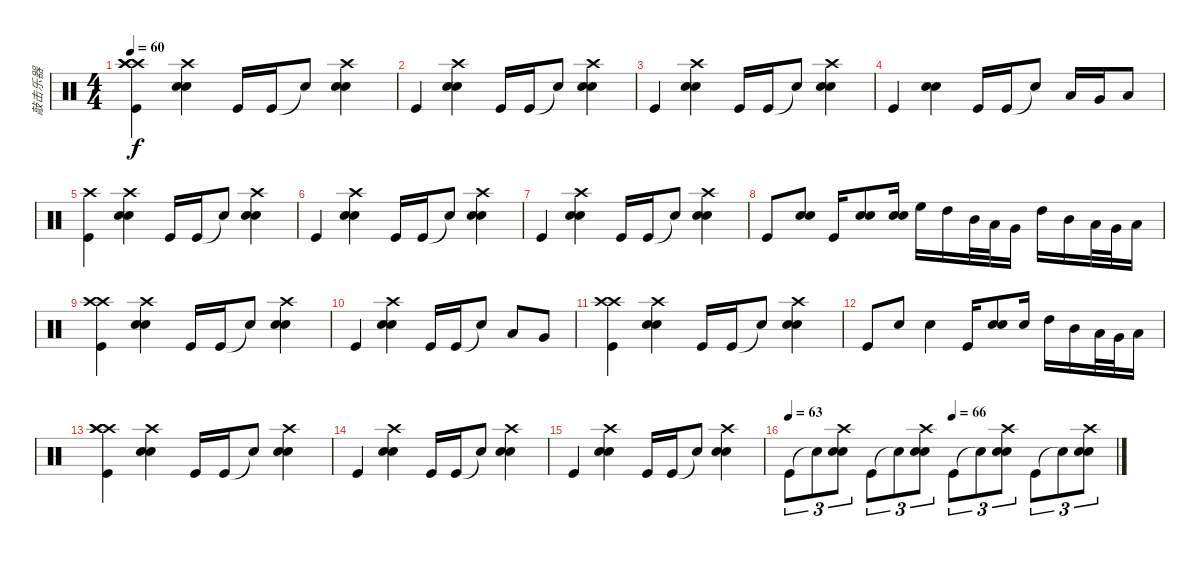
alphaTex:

\track ("敲击乐器" "敲击乐器") {instrument percussion}
\staff {score}
\articulation defaults
\ts (4 4)
\tempo 60
\clef neutral
\ks c
("Crash high (hit)" "Crash high (hit)" "Crash high (hit)" "Kick (hit)").4{dy f} ("Crash high (hit)" "Snare (hit) 2" "Snare (hit) 2").4 "Kick (hit)".16 "Kick (hit)".16 "Snare (hit)"{t}.8 ("Crash high (hit)" "Snare (hit) 2" "Snare (hit) 2").4 |
"Kick (hit)".4 ("Crash high (hit)" "Snare (hit) 2" "Snare (hit) 2").4 "Kick (hit)".16 "Kick (hit)".16 "Snare (hit)"{t}.8 ("Crash high (hit)" "Snare (hit) 2" "Snare (hit) 2").4 |
"Kick (hit)".4 ("Crash high (hit)" "Snare (hit) 2" "Snare (hit) 2").4 "Kick (hit)".16 "Kick (hit)".16 "Snare (hit)"{t}.8 ("Crash high (hit)" "Snare (hit) 2" "Snare (hit) 2").4 |
"Kick (hit)".4 ("Snare (hit) 2" "Snare (hit) 2").4 "Kick (hit)".16 "Kick (hit)".16 "Snare (hit)"{t}.8 "Low Tom (hit)".16 "Very Low Tom (hit)".16 "Low Floor Tom (hit)".8 |
("Crash high (hit)" "Kick (hit)").4 ("Crash high (hit)" "Snare (hit) 2" "Snare (hit) 2").4 "Kick (hit)".16 "Kick (hit)".16 "Snare (hit)"{t}.8 ("Crash high (hit)" "Snare (hit) 2" "Snare (hit) 2").4 |
"Kick (hit)".4 ("Crash high (hit)" "Snare (hit) 2" "Snare (hit) 2").4 "Kick (hit)".16 "Kick (hit)".16 "Snare (hit)"{t}.8 ("Crash high (hit)" "Snare (hit) 2" "Snare (hit) 2").4 |
"Kick (hit)".4 ("Crash high (hit)" "Snare (hit) 2" "Snare (hit) 2").4 "Kick (hit)".16 "Kick (hit)".16 "Snare (hit)"{t}.8 ("Crash high (hit)" "Snare (hit) 2" "Snare (hit) 2").4 |
"Kick (hit)".8 ("Snare (hit) 2" "Snare (hit) 2").8 "Kick (hit)".16 ("Snare (hit) 2" "Snare (hit) 2").8 ("Snare (hit) 2" "Snare (hit) 2").16 "High Floor Tom (hit)".16 "High Tom (hit)".16 "Mid Tom (hit)".32 "Low Tom (hit)".32 "Very Low Tom (hit)".16 "High Tom (hit)".16 "Mid Tom (hit)".16 "Low Tom (hit)".32 "Very Low Tom (hit)".32 "Low Floor Tom (hit)".16 |
("Crash high (hit)" "Crash high (hit)" "Kick (hit)").4 ("Crash high (hit)" "Snare (hit) 2" "Snare (hit) 2").4 "Kick (hit)".16 "Kick (hit)".16 "Snare (hit)"{t}.8 ("Crash high (hit)" "Snare (hit) 2" "Snare (hit) 2").4 |
"Kick (hit)".4 ("Crash high (hit)" "Snare (hit) 2" "Snare (hit) 2").4 "Kick (hit)".16 "Kick (hit)".16 "Snare (hit)"{t}.8 "Low Tom (hit)".8 "Very Low Tom (hit)".8 |
("Crash high (hit)" "Crash high (hit)" "Kick (hit)").4 ("Crash high (hit)" "Snare (hit) 2" "Snare (hit) 2").4 "Kick (hit)".16 "Kick (hit)".16 "Snare (hit)"{t}.8 ("Crash high (hit)" "Snare (hit) 2" "Snare (hit) 2").4 |
"Kick (hit)".8 "Snare (hit) 2".8 "Snare (hit) 2".4 "Kick (hit)".16 ("Snare (hit) 2" "Snare (hit) 2").8 "Snare (hit) 2".16 "High Tom (hit)".16 "Mid Tom (hit)".16 "Low Tom (hit)".32 "Very Low Tom (hit)".32 "Low Floor Tom (hit)".16 |
("Crash high (hit)" "Crash high (hit)" "Crash high (hit)" "Kick (hit)").4 ("Crash high (hit)" "Snare (hit) 2" "Snare (hit) 2").4 "Kick (hit)".16 "Kick (hit)".16 "Snare (hit)"{t}.8 ("Crash high (hit)" "Snare (hit) 2" "Snare (hit) 2").4 |
"Kick (hit)".4 ("Crash high (hit)" "Snare (hit) 2" "Snare (hit) 2").4 "Kick (hit)".16 "Kick (hit)".16 "Snare (hit)"{t}.8 ("Crash high (hit)" "Snare (hit) 2" "Snare (hit) 2").4 |
"Kick (hit)".4 ("Crash high (hit)" "Snare (hit) 2" "Snare (hit) 2").4 "Kick (hit)".16 "Kick (hit)".16 "Snare (hit)"{t}.8 ("Crash high (hit)" "Snare (hit) 2" "Snare (hit) 2").4 |
\tempo 63
\tempo (66 0.5)
"Kick (hit)".8{tu (3 2)} "Snare (hit)"{t}.8{tu (3 2)} ("Crash high (hit)" "Snare (hit) 2" "Snare (hit) 2").8{tu (3 2)} "Kick (hit)".8{tu (3 2)} "Snare (hit)"{t}.8{tu (3 2)} ("Crash high (hit)" "Snare (hit) 2" "Snare (hit) 2").8{tu (3 2)} "Kick (hit)".8{tu (3 2)} "Snare (hit)"{t}.8{tu (3 2)} ("Crash high (hit)" "Snare (hit) 2" "Snare (hit) 2").8{tu (3 2)} "Kick (hit)".8{tu (3 2)} "Snare (hit)"{t}.8{tu (3 2)} ("Crash high (hit)" "Snare (hit) 2" "Snare (hit) 2").8{tu (3 2)}
